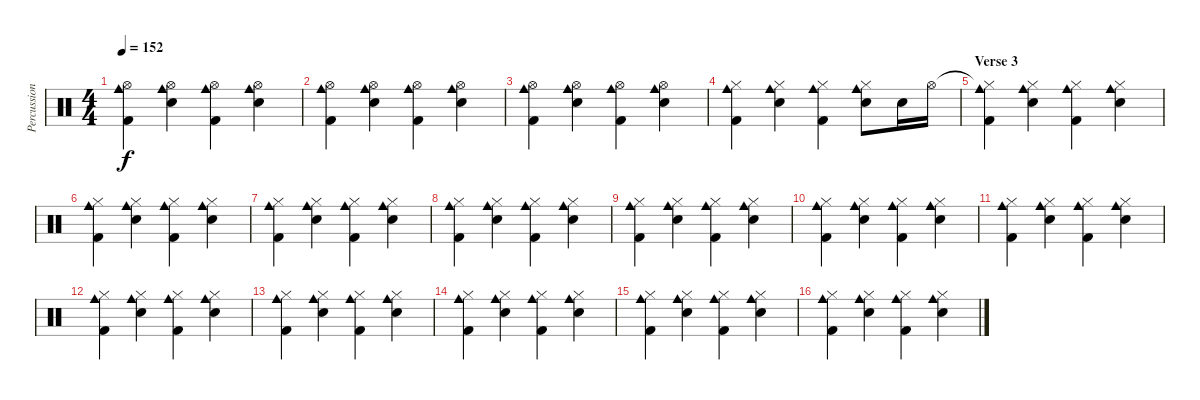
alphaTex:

\track ("Percussions" "Percussion") {instrument percussion}
\staff {score}
\articulation defaults
\ts (4 4)
\tempo 152
\clef neutral
\ks c
("Hi-Hat (open)" "Cowbell medium (hit)" "Kick (hit) 2").4{dy f} ("Hi-Hat (open)" "Cowbell medium (hit)" "Electric Snare (hit)").4 ("Hi-Hat (open)" "Cowbell medium (hit)" "Kick (hit) 2").4 ("Hi-Hat (open)" "Cowbell medium (hit)" "Electric Snare (hit)").4 |
("Hi-Hat (open)" "Cowbell medium (hit)" "Kick (hit) 2").4 ("Hi-Hat (open)" "Cowbell medium (hit)" "Electric Snare (hit)").4 ("Hi-Hat (open)" "Cowbell medium (hit)" "Kick (hit) 2").4 ("Hi-Hat (open)" "Cowbell medium (hit)" "Electric Snare (hit)").4 |
("Hi-Hat (open)" "Cowbell medium (hit)" "Kick (hit) 2").4 ("Hi-Hat (open)" "Cowbell medium (hit)" "Electric Snare (hit)").4 ("Hi-Hat (open)" "Cowbell medium (hit)" "Kick (hit) 2").4 ("Hi-Hat (open)" "Cowbell medium (hit)" "Electric Snare (hit)").4 |
("Hi-Hat (closed)" "Cowbell medium (hit)" "Kick (hit) 2").4 ("Hi-Hat (closed)" "Cowbell medium (hit)" "Electric Snare (hit)").4 ("Hi-Hat (closed)" "Cowbell medium (hit)" "Kick (hit) 2").4 ("Hi-Hat (closed)" "Cowbell medium (hit)" "Electric Snare (hit)").8 "Electric Snare (hit)".16 "Hi-Hat (open)".16 |
\section ("" "Verse 3")
("Hi-Hat (closed)"{t} "Cowbell medium (hit)" "Kick (hit) 2").4 ("Hi-Hat (closed)" "Cowbell medium (hit)" "Electric Snare (hit)").4 ("Hi-Hat (closed)" "Cowbell medium (hit)" "Kick (hit) 2").4 ("Hi-Hat (closed)" "Cowbell medium (hit)" "Electric Snare (hit)").4 |
("Hi-Hat (closed)" "Cowbell medium (hit)" "Kick (hit) 2").4 ("Hi-Hat (closed)" "Cowbell medium (hit)" "Electric Snare (hit)").4 ("Hi-Hat (closed)" "Cowbell medium (hit)" "Kick (hit) 2").4 ("Hi-Hat (closed)" "Cowbell medium (hit)" "Electric Snare (hit)").4 |
("Hi-Hat (closed)" "Cowbell medium (hit)" "Kick (hit) 2").4 ("Hi-Hat (closed)" "Cowbell medium (hit)" "Electric Snare (hit)").4 ("Hi-Hat (closed)" "Cowbell medium (hit)" "Kick (hit) 2").4 ("Hi-Hat (closed)" "Cowbell medium (hit)" "Electric Snare (hit)").4 |
("Hi-Hat (closed)" "Cowbell medium (hit)" "Kick (hit) 2").4 ("Hi-Hat (closed)" "Cowbell medium (hit)" "Electric Snare (hit)").4 ("Hi-Hat (closed)" "Cowbell medium (hit)" "Kick (hit) 2").4 ("Hi-Hat (closed)" "Cowbell medium (hit)" "Electric Snare (hit)").4 |
("Hi-Hat (closed)" "Cowbell medium (hit)" "Kick (hit) 2").4 ("Hi-Hat (closed)" "Cowbell medium (hit)" "Electric Snare (hit)").4 ("Hi-Hat (closed)" "Cowbell medium (hit)" "Kick (hit) 2").4 ("Hi-Hat (closed)" "Cowbell medium (hit)" "Electric Snare (hit)").4 |
("Hi-Hat (closed)" "Cowbell medium (hit)" "Kick (hit) 2").4 ("Hi-Hat (closed)" "Cowbell medium (hit)" "Electric Snare (hit)").4 ("Hi-Hat (closed)" "Cowbell medium (hit)" "Kick (hit) 2").4 ("Hi-Hat (closed)" "Cowbell medium (hit)" "Electric Snare (hit)").4 |
("Hi-Hat (closed)" "Cowbell medium (hit)" "Kick (hit) 2").4 ("Hi-Hat (closed)" "Cowbell medium (hit)" "Electric Snare (hit)").4 ("Hi-Hat (closed)" "Cowbell medium (hit)" "Kick (hit) 2").4 ("Hi-Hat (closed)" "Cowbell medium (hit)" "Electric Snare (hit)").4 |
("Hi-Hat (closed)" "Cowbell medium (hit)" "Kick (hit) 2").4 ("Hi-Hat (closed)" "Cowbell medium (hit)" "Electric Snare (hit)").4 ("Hi-Hat (closed)" "Cowbell medium (hit)" "Kick (hit) 2").4 ("Hi-Hat (closed)" "Cowbell medium (hit)" "Electric Snare (hit)").4 |
("Hi-Hat (closed)" "Cowbell medium (hit)" "Kick (hit) 2").4 ("Hi-Hat (closed)" "Cowbell medium (hit)" "Electric Snare (hit)").4 ("Hi-Hat (closed)" "Cowbell medium (hit)" "Kick (hit) 2").4 ("Hi-Hat (closed)" "Cowbell medium (hit)" "Electric Snare (hit)").4 |
("Hi-Hat (closed)" "Cowbell medium (hit)" "Kick (hit) 2").4 ("Hi-Hat (closed)" "Cowbell medium (hit)" "Electric Snare (hit)").4 ("Hi-Hat (closed)" "Cowbell medium (hit)" "Kick (hit) 2").4 ("Hi-Hat (closed)" "Cowbell medium (hit)" "Electric Snare (hit)").4 |
("Hi-Hat (closed)" "Cowbell medium (hit)" "Kick (hit) 2").4 ("Hi-Hat (closed)" "Cowbell medium (hit)" "Electric Snare (hit)").4 ("Hi-Hat (closed)" "Cowbell medium (hit)" "Kick (hit) 2").4 ("Hi-Hat (closed)" "Cowbell medium (hit)" "Electric Snare (hit)").4 |
("Hi-Hat (closed)" "Cowbell medium (hit)" "Kick (hit) 2").4 ("Hi-Hat (closed)" "Cowbell medium (hit)" "Electric Snare (hit)").4 ("Hi-Hat (closed)" "Cowbell medium (hit)" "Kick (hit) 2").4 ("Hi-Hat (closed)" "Cowbell medium (hit)" "Electric Snare (hit)").4
